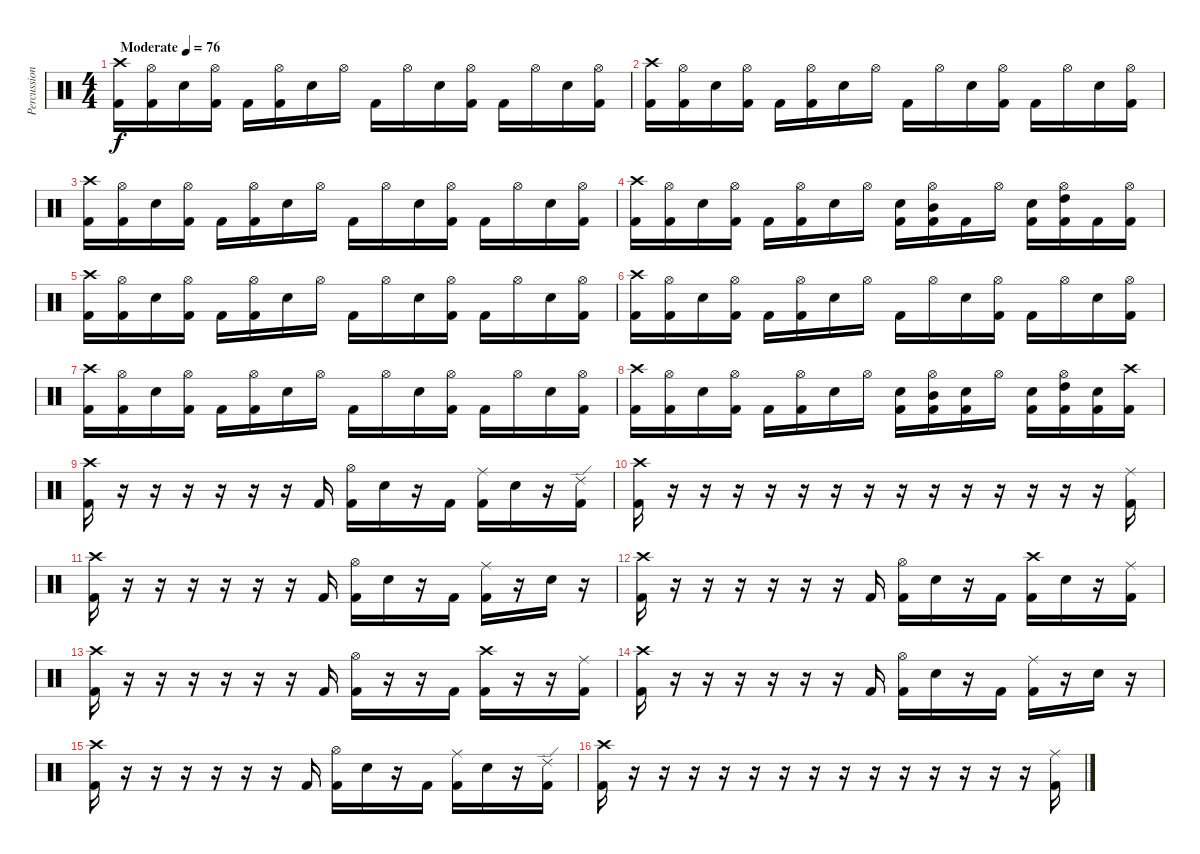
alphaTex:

\track ("Percussion" "Percussion") {instrument percussion}
\staff {score}
\articulation defaults
\ts (4 4)
\tempo (76 "Moderate")
\clef neutral
\ks c
("Crash high (hit)" "Kick (hit) 2").16{dy f} ("Hi-Hat (open)" "Kick (hit) 2").16 "Electric Snare (hit)".16 ("Hi-Hat (open)" "Kick (hit) 2").16 "Kick (hit) 2".16 ("Hi-Hat (open)" "Kick (hit) 2").16 "Electric Snare (hit)".16 "Hi-Hat (open)".16 "Kick (hit) 2".16 "Hi-Hat (open)".16 "Electric Snare (hit)".16 ("Hi-Hat (open)" "Kick (hit) 2").16 "Kick (hit) 2".16 "Hi-Hat (open)".16 "Electric Snare (hit)".16 ("Hi-Hat (open)" "Kick (hit) 2").16 |
("Crash high (hit)" "Kick (hit) 2").16 ("Hi-Hat (open)" "Kick (hit) 2").16 "Electric Snare (hit)".16 ("Hi-Hat (open)" "Kick (hit) 2").16 "Kick (hit) 2".16 ("Hi-Hat (open)" "Kick (hit) 2").16 "Electric Snare (hit)".16 "Hi-Hat (open)".16 "Kick (hit) 2".16 "Hi-Hat (open)".16 "Electric Snare (hit)".16 ("Hi-Hat (open)" "Kick (hit) 2").16 "Kick (hit) 2".16 "Hi-Hat (open)".16 "Electric Snare (hit)".16 ("Hi-Hat (open)" "Kick (hit) 2").16 |
("Crash high (hit)" "Kick (hit) 2").16 ("Hi-Hat (open)" "Kick (hit) 2").16 "Electric Snare (hit)".16 ("Hi-Hat (open)" "Kick (hit) 2").16 "Kick (hit) 2".16 ("Hi-Hat (open)" "Kick (hit) 2").16 "Electric Snare (hit)".16 "Hi-Hat (open)".16 "Kick (hit) 2".16 "Hi-Hat (open)".16 "Electric Snare (hit)".16 ("Hi-Hat (open)" "Kick (hit) 2").16 "Kick (hit) 2".16 "Hi-Hat (open)".16 "Electric Snare (hit)".16 ("Hi-Hat (open)" "Kick (hit) 2").16 |
("Crash high (hit)" "Kick (hit) 2").16 ("Hi-Hat (open)" "Kick (hit) 2").16 "Electric Snare (hit)".16 ("Hi-Hat (open)" "Kick (hit) 2").16 "Kick (hit) 2".16 ("Hi-Hat (open)" "Kick (hit) 2").16 "Electric Snare (hit)".16 "Hi-Hat (open)".16 ("Electric Snare (hit)" "Kick (hit) 2").16 ("Hi-Hat (open)" "Mid Tom (hit)" "Kick (hit) 2").16 "Kick (hit) 2".16 "Hi-Hat (open)".16 ("Electric Snare (hit)" "Kick (hit) 2").16 ("Hi-Hat (open)" "High Tom (hit)" "Kick (hit) 2").16 "Kick (hit) 2".16 ("Hi-Hat (open)" "Kick (hit) 2").16 |
("Crash high (hit)" "Kick (hit) 2").16 ("Hi-Hat (open)" "Kick (hit) 2").16 "Electric Snare (hit)".16 ("Hi-Hat (open)" "Kick (hit) 2").16 "Kick (hit) 2".16 ("Hi-Hat (open)" "Kick (hit) 2").16 "Electric Snare (hit)".16 "Hi-Hat (open)".16 "Kick (hit) 2".16 "Hi-Hat (open)".16 "Electric Snare (hit)".16 ("Hi-Hat (open)" "Kick (hit) 2").16 "Kick (hit) 2".16 "Hi-Hat (open)".16 "Electric Snare (hit)".16 ("Hi-Hat (open)" "Kick (hit) 2").16 |
("Crash high (hit)" "Kick (hit) 2").16 ("Hi-Hat (open)" "Kick (hit) 2").16 "Electric Snare (hit)".16 ("Hi-Hat (open)" "Kick (hit) 2").16 "Kick (hit) 2".16 ("Hi-Hat (open)" "Kick (hit) 2").16 "Electric Snare (hit)".16 "Hi-Hat (open)".16 "Kick (hit) 2".16 "Hi-Hat (open)".16 "Electric Snare (hit)".16 ("Hi-Hat (open)" "Kick (hit) 2").16 "Kick (hit) 2".16 "Hi-Hat (open)".16 "Electric Snare (hit)".16 ("Hi-Hat (open)" "Kick (hit) 2").16 |
("Crash high (hit)" "Kick (hit) 2").16 ("Hi-Hat (open)" "Kick (hit) 2").16 "Electric Snare (hit)".16 ("Hi-Hat (open)" "Kick (hit) 2").16 "Kick (hit) 2".16 ("Hi-Hat (open)" "Kick (hit) 2").16 "Electric Snare (hit)".16 "Hi-Hat (open)".16 "Kick (hit) 2".16 "Hi-Hat (open)".16 "Electric Snare (hit)".16 ("Hi-Hat (open)" "Kick (hit) 2").16 "Kick (hit) 2".16 "Hi-Hat (open)".16 "Electric Snare (hit)".16 ("Hi-Hat (open)" "Kick (hit) 2").16 |
("Crash high (hit)" "Kick (hit) 2").16 ("Hi-Hat (open)" "Kick (hit) 2").16 "Electric Snare (hit)".16 ("Hi-Hat (open)" "Kick (hit) 2").16 "Kick (hit) 2".16 ("Hi-Hat (open)" "Kick (hit) 2").16 "Electric Snare (hit)".16 "Hi-Hat (open)".16 ("Electric Snare (hit)" "Kick (hit) 2").16 ("Hi-Hat (open)" "Mid Tom (hit)" "Kick (hit) 2").16 ("Electric Snare (hit)" "Kick (hit) 2").16 "Hi-Hat (open)".16 ("Electric Snare (hit)" "Kick (hit) 2").16 ("Hi-Hat (open)" "High Tom (hit)" "Kick (hit) 2").16 ("Electric Snare (hit)" "Kick (hit) 2").16 ("Crash high (hit)" "Kick (hit) 2").16 |
("Crash high (hit)" "Kick (hit) 2").16 r.16 r.16 r.16 r.16 r.16 r.16 "Kick (hit) 2".16 ("Hi-Hat (open)" "Kick (hit) 2").16 "Electric Snare (hit)".16 r.16 "Kick (hit) 2".16 ("Ride (middle)" "Kick (hit) 2").16 "Electric Snare (hit)".16 r.16 ("Ride (edge) 2" "Kick (hit) 2").16 |
("Crash high (hit)" "Kick (hit) 2").16 r.16 r.16 r.16 r.16 r.16 r.16 r.16 r.16 r.16 r.16 r.16 r.16 r.16 r.16 ("Ride (middle)" "Kick (hit) 2").16 |
("Crash high (hit)" "Kick (hit) 2").16 r.16 r.16 r.16 r.16 r.16 r.16 "Kick (hit) 2".16 ("Hi-Hat (open)" "Kick (hit) 2").16 "Electric Snare (hit)".16 r.16 "Kick (hit) 2".16 ("Ride (middle)" "Kick (hit) 2").16 r.16 "Electric Snare (hit)".16 r.16 |
("Crash high (hit)" "Kick (hit) 2").16 r.16 r.16 r.16 r.16 r.16 r.16 "Kick (hit) 2".16 ("Hi-Hat (open)" "Kick (hit) 2").16 "Electric Snare (hit)".16 r.16 "Kick (hit) 2".16 ("Crash high (hit)" "Kick (hit) 2").16 "Electric Snare (hit)".16 r.16 ("Ride (middle)" "Kick (hit) 2").16 |
("Crash high (hit)" "Kick (hit) 2").16 r.16 r.16 r.16 r.16 r.16 r.16 "Kick (hit) 2".16 ("Hi-Hat (open)" "Kick (hit) 2").16 r.16 r.16 "Kick (hit) 2".16 ("Crash high (hit)" "Kick (hit) 2").16 r.16 r.16 ("Ride (middle)" "Kick (hit) 2").16 |
("Crash high (hit)" "Kick (hit) 2").16 r.16 r.16 r.16 r.16 r.16 r.16 "Kick (hit) 2".16 ("Hi-Hat (open)" "Kick (hit) 2").16 "Electric Snare (hit)".16 r.16 "Kick (hit) 2".16 ("Ride (middle)" "Kick (hit) 2").16 r.16 "Electric Snare (hit)".16 r.16 |
("Crash high (hit)" "Kick (hit) 2").16 r.16 r.16 r.16 r.16 r.16 r.16 "Kick (hit) 2".16 ("Hi-Hat (open)" "Kick (hit) 2").16 "Electric Snare (hit)".16 r.16 "Kick (hit) 2".16 ("Ride (middle)" "Kick (hit) 2").16 "Electric Snare (hit)".16 r.16 ("Ride (edge) 2" "Kick (hit) 2").16 |
("Crash high (hit)" "Kick (hit) 2").16 r.16 r.16 r.16 r.16 r.16 r.16 r.16 r.16 r.16 r.16 r.16 r.16 r.16 r.16 ("Ride (middle)" "Kick (hit) 2").16
